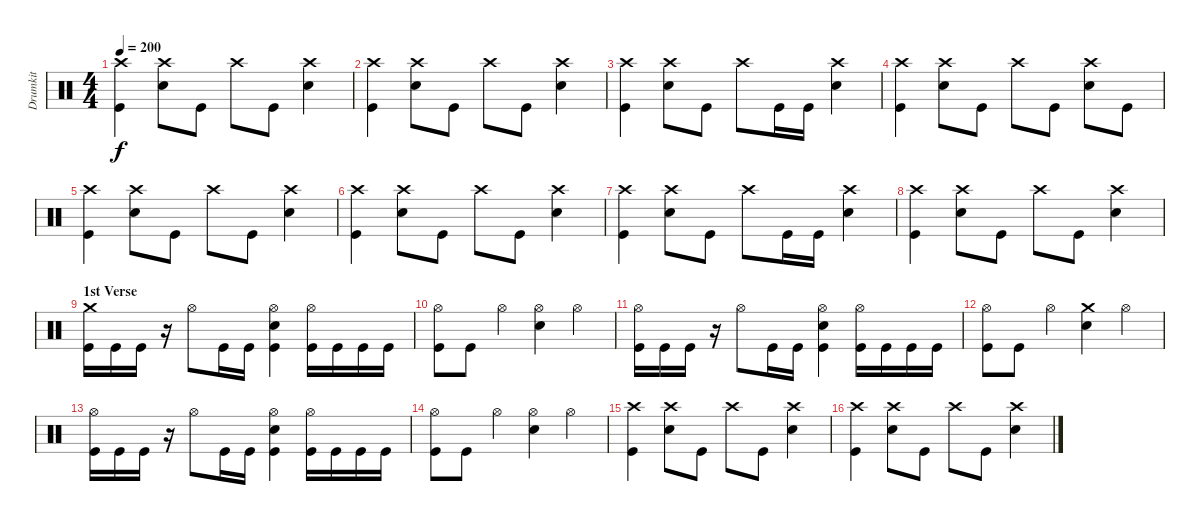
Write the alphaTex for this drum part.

\track ("Drumkit" "Drumkit") {instrument percussion}
\staff {score}
\articulation defaults
\ts (4 4)
\tempo 200
\clef neutral
\ks c
("Kick (hit)" "Crash high (hit)").4{dy f} ("Snare (hit) 2" "Crash high (hit)").8 "Kick (hit)".8 "Crash high (hit)".8 "Kick (hit)".8 ("Snare (hit) 2" "Crash high (hit)").4 |
("Kick (hit)" "Crash high (hit)").4 ("Snare (hit) 2" "Crash high (hit)").8 "Kick (hit)".8 "Crash high (hit)".8 "Kick (hit)".8 ("Snare (hit) 2" "Crash high (hit)").4 |
("Kick (hit)" "Crash high (hit)").4 ("Snare (hit) 2" "Crash high (hit)").8 "Kick (hit)".8 "Crash high (hit)".8 "Kick (hit)".16 "Kick (hit)".16 ("Snare (hit) 2" "Crash high (hit)").4 |
("Kick (hit)" "Crash high (hit)").4 ("Snare (hit) 2" "Crash high (hit)").8 "Kick (hit)".8 "Crash high (hit)".8 "Kick (hit)".8 ("Snare (hit) 2" "Crash high (hit)").8 "Kick (hit)".8 |
("Kick (hit)" "Crash high (hit)").4 ("Snare (hit) 2" "Crash high (hit)").8 "Kick (hit)".8 "Crash high (hit)".8 "Kick (hit)".8 ("Snare (hit) 2" "Crash high (hit)").4 |
("Kick (hit)" "Crash high (hit)").4 ("Snare (hit) 2" "Crash high (hit)").8 "Kick (hit)".8 "Crash high (hit)".8 "Kick (hit)".8 ("Snare (hit) 2" "Crash high (hit)").4 |
("Kick (hit)" "Crash high (hit)").4 ("Snare (hit) 2" "Crash high (hit)").8 "Kick (hit)".8 "Crash high (hit)".8 "Kick (hit)".16 "Kick (hit)".16 ("Snare (hit) 2" "Crash high (hit)").4 |
("Kick (hit)" "Crash high (hit)").4 ("Snare (hit) 2" "Crash high (hit)").8 "Kick (hit)".8 "Crash high (hit)".8 "Kick (hit)".8 ("Snare (hit) 2" "Crash high (hit)").4 |
\section ("" "1st Verse")
("Crash medium (hit)" "Kick (hit)").16 "Kick (hit)".16 "Kick (hit)".16 r.16 "Hi-Hat (open)".8 "Kick (hit)".16 "Kick (hit)".16 ("Hi-Hat (open)" "Snare (hit) 2" "Kick (hit)").4 ("Kick (hit)" "Hi-Hat (open)").16 "Kick (hit)".16 "Kick (hit)".16 "Kick (hit)".16 |
("Hi-Hat (open)" "Kick (hit)").8 "Kick (hit)".8 "Hi-Hat (open)".4 ("Hi-Hat (open)" "Snare (hit) 2").4 "Hi-Hat (open)".4 |
("Kick (hit)" "Hi-Hat (open)").16 "Kick (hit)".16 "Kick (hit)".16 r.16 "Hi-Hat (open)".8 "Kick (hit)".16 "Kick (hit)".16 ("Hi-Hat (open)" "Snare (hit) 2" "Kick (hit)").4 ("Kick (hit)" "Hi-Hat (open)").16 "Kick (hit)".16 "Kick (hit)".16 "Kick (hit)".16 |
("Hi-Hat (open)" "Kick (hit)").8 "Kick (hit)".8 "Hi-Hat (open)".4 ("Snare (hit) 2" "Crash medium (hit)").4 "Hi-Hat (open)".4 |
("Kick (hit)" "Hi-Hat (open)").16 "Kick (hit)".16 "Kick (hit)".16 r.16 "Hi-Hat (open)".8 "Kick (hit)".16 "Kick (hit)".16 ("Hi-Hat (open)" "Snare (hit) 2" "Kick (hit)").4 ("Kick (hit)" "Hi-Hat (open)").16 "Kick (hit)".16 "Kick (hit)".16 "Kick (hit)".16 |
("Hi-Hat (open)" "Kick (hit)").8 "Kick (hit)".8 "Hi-Hat (open)".4 ("Hi-Hat (open)" "Snare (hit) 2").4 "Hi-Hat (open)".4 |
("Kick (hit)" "Crash high (hit)").4 ("Snare (hit) 2" "Crash high (hit)").8 "Kick (hit)".8 "Crash high (hit)".8 "Kick (hit)".8 ("Snare (hit) 2" "Crash high (hit)").4 |
("Kick (hit)" "Crash high (hit)").4 ("Snare (hit) 2" "Crash high (hit)").8 "Kick (hit)".8 "Crash high (hit)".8 "Kick (hit)".8 ("Snare (hit) 2" "Crash high (hit)").4
